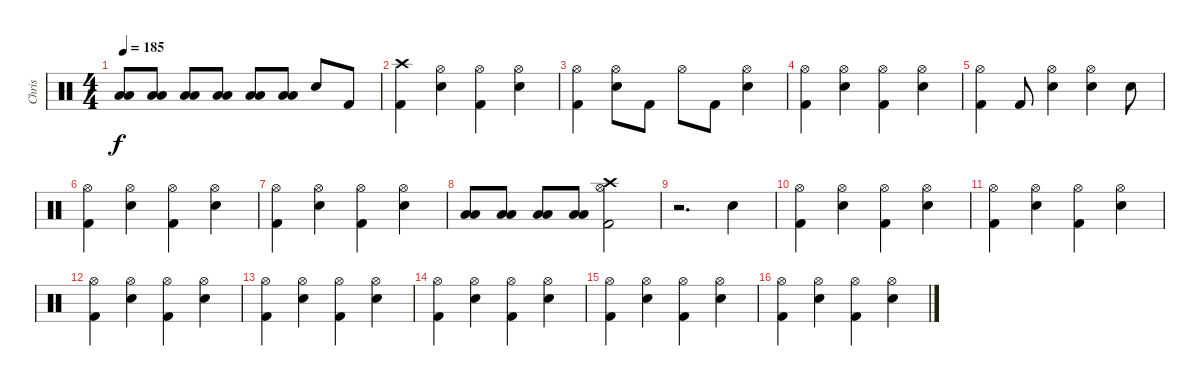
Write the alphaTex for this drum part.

\track ("Chris" "Chris") {instrument percussion}
\staff {score}
\articulation defaults
\ts (4 4)
\tempo 185
\clef neutral
\ks c
("Low Floor Tom (hit)" "Low Tom (hit)").8{dy f} ("Low Floor Tom (hit)" "Low Tom (hit)").8 ("Low Floor Tom (hit)" "Low Tom (hit)").8 ("Low Floor Tom (hit)" "Low Tom (hit)").8 ("Low Floor Tom (hit)" "Low Tom (hit)").8 ("Low Floor Tom (hit)" "Low Tom (hit)").8 "Snare (hit) 2".8 "Kick (hit) 2".8 |
("Crash high (hit)" "Kick (hit) 2").4 ("Snare (hit) 2" "Hi-Hat (open)").4 ("Hi-Hat (open)" "Kick (hit) 2").4 ("Snare (hit) 2" "Hi-Hat (open)").4 |
("Hi-Hat (open)" "Kick (hit) 2").4 ("Snare (hit) 2" "Hi-Hat (open)").8 "Kick (hit) 2".8 "Hi-Hat (open)".8 "Kick (hit) 2".8 ("Snare (hit) 2" "Hi-Hat (open)").4 |
("Hi-Hat (open)" "Kick (hit) 2").4 ("Snare (hit) 2" "Hi-Hat (open)").4 ("Hi-Hat (open)" "Kick (hit) 2").4 ("Snare (hit) 2" "Hi-Hat (open)").4 |
("Hi-Hat (open)" "Kick (hit) 2").4 "Kick (hit) 2".8 ("Snare (hit) 2" "Hi-Hat (open)").4 ("Snare (hit) 2" "Hi-Hat (open)").4 "Snare (hit) 2".8 |
("Hi-Hat (open)" "Kick (hit) 2").4 ("Snare (hit) 2" "Hi-Hat (open)").4 ("Hi-Hat (open)" "Kick (hit) 2").4 ("Snare (hit) 2" "Hi-Hat (open)").4 |
("Hi-Hat (open)" "Kick (hit) 2").4 ("Snare (hit) 2" "Hi-Hat (open)").4 ("Hi-Hat (open)" "Kick (hit) 2").4 ("Snare (hit) 2" "Hi-Hat (open)").4 |
("Low Floor Tom (hit)" "Low Tom (hit)").8 ("Low Floor Tom (hit)" "Low Tom (hit)").8 ("Low Floor Tom (hit)" "Low Tom (hit)").8 ("Low Floor Tom (hit)" "Low Tom (hit)").8 ("Crash high (hit)" "Hi-Hat (open)" "Kick (hit) 2").2 |
r.2{d} "Snare (hit) 2".4 |
("Hi-Hat (open)" "Kick (hit) 2").4 ("Snare (hit) 2" "Hi-Hat (open)").4 ("Hi-Hat (open)" "Kick (hit) 2").4 ("Snare (hit) 2" "Hi-Hat (open)").4 |
("Hi-Hat (open)" "Kick (hit) 2").4 ("Snare (hit) 2" "Hi-Hat (open)").4 ("Hi-Hat (open)" "Kick (hit) 2").4 ("Snare (hit) 2" "Hi-Hat (open)").4 |
("Hi-Hat (open)" "Kick (hit) 2").4 ("Snare (hit) 2" "Hi-Hat (open)").4 ("Hi-Hat (open)" "Kick (hit) 2").4 ("Snare (hit) 2" "Hi-Hat (open)").4 |
("Hi-Hat (open)" "Kick (hit) 2").4 ("Snare (hit) 2" "Hi-Hat (open)").4 ("Hi-Hat (open)" "Kick (hit) 2").4 ("Snare (hit) 2" "Hi-Hat (open)").4 |
("Hi-Hat (open)" "Kick (hit) 2").4 ("Snare (hit) 2" "Hi-Hat (open)").4 ("Hi-Hat (open)" "Kick (hit) 2").4 ("Snare (hit) 2" "Hi-Hat (open)").4 |
("Hi-Hat (open)" "Kick (hit) 2").4 ("Snare (hit) 2" "Hi-Hat (open)").4 ("Hi-Hat (open)" "Kick (hit) 2").4 ("Snare (hit) 2" "Hi-Hat (open)").4 |
("Hi-Hat (open)" "Kick (hit) 2").4 ("Snare (hit) 2" "Hi-Hat (open)").4 ("Hi-Hat (open)" "Kick (hit) 2").4 ("Snare (hit) 2" "Hi-Hat (open)").4
